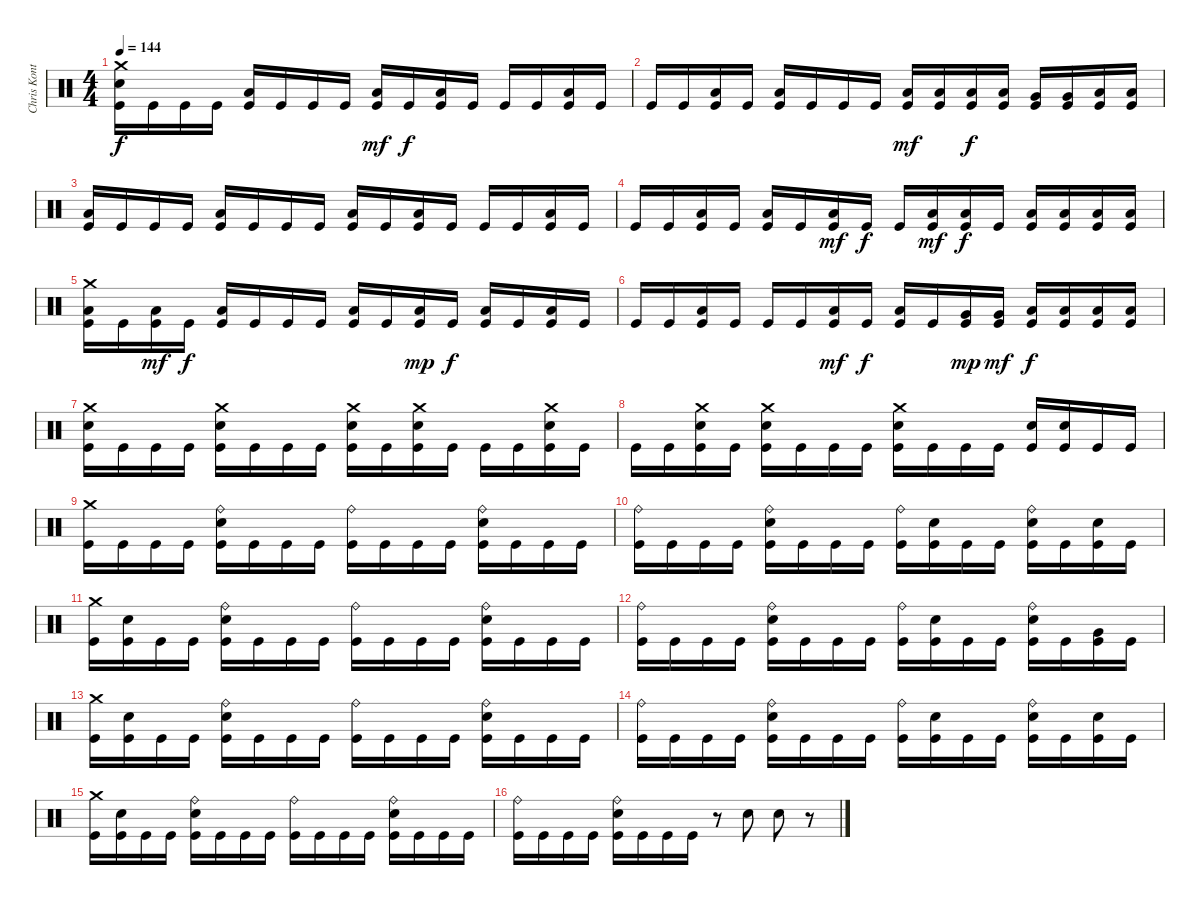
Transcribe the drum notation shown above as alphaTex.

\track ("Chris Kontos" "Chris Kont") {instrument percussion}
\staff {score}
\articulation defaults
\ts (4 4)
\tempo 144
\clef neutral
\ks c
("Crash medium (hit)" "Electric Snare (hit)" "Kick (hit)").16{dy f} "Kick (hit)".16 "Kick (hit)".16 "Kick (hit)".16 ("Low Floor Tom (hit)" "Kick (hit)").16 "Kick (hit)".16 "Kick (hit)".16 "Kick (hit)".16 ("Low Floor Tom (hit)" "Kick (hit)").16{dy mf} "Kick (hit)".16{dy f} ("Low Floor Tom (hit)" "Kick (hit)").16 "Kick (hit)".16 "Kick (hit)".16 "Kick (hit)".16 ("Low Floor Tom (hit)" "Kick (hit)").16 "Kick (hit)".16 |
"Kick (hit)".16 "Kick (hit)".16 ("Low Floor Tom (hit)" "Kick (hit)").16 "Kick (hit)".16 ("Low Floor Tom (hit)" "Kick (hit)").16 "Kick (hit)".16 "Kick (hit)".16 "Kick (hit)".16 ("Low Tom (hit)" "Kick (hit)").16{dy mf} ("Low Tom (hit)" "Kick (hit)").16 ("Low Tom (hit)" "Kick (hit)").16{dy f} ("Low Tom (hit)" "Kick (hit)").16 ("Very Low Tom (hit)" "Kick (hit)").16 ("Very Low Tom (hit)" "Kick (hit)").16 ("Low Floor Tom (hit)" "Kick (hit)").16 ("Low Floor Tom (hit)" "Kick (hit)").16 |
("Low Floor Tom (hit)" "Kick (hit)").16 "Kick (hit)".16 "Kick (hit)".16 "Kick (hit)".16 ("Low Floor Tom (hit)" "Kick (hit)").16 "Kick (hit)".16 "Kick (hit)".16 "Kick (hit)".16 ("Low Floor Tom (hit)" "Kick (hit)").16 "Kick (hit)".16 ("Low Floor Tom (hit)" "Kick (hit)").16 "Kick (hit)".16 "Kick (hit)".16 "Kick (hit)".16 ("Low Floor Tom (hit)" "Kick (hit)").16 "Kick (hit)".16 |
"Kick (hit)".16 "Kick (hit)".16 ("Low Floor Tom (hit)" "Kick (hit)").16 "Kick (hit)".16 ("Low Floor Tom (hit)" "Kick (hit)").16 "Kick (hit)".16 ("Low Floor Tom (hit)" "Kick (hit)").16{dy mf} "Kick (hit)".16{dy f} "Kick (hit)".16 ("Low Floor Tom (hit)" "Kick (hit)").16{dy mf} ("Low Floor Tom (hit)" "Kick (hit)").16{dy f} "Kick (hit)".16 ("Low Floor Tom (hit)" "Kick (hit)").16 ("Low Floor Tom (hit)" "Kick (hit)").16 ("Low Floor Tom (hit)" "Kick (hit)").16 ("Low Floor Tom (hit)" "Kick (hit)").16 |
("Crash medium (hit)" "Low Floor Tom (hit)" "Kick (hit)").16 "Kick (hit)".16 ("Low Floor Tom (hit)" "Kick (hit)").16{dy mf} "Kick (hit)".16{dy f} ("Low Floor Tom (hit)" "Kick (hit)").16 "Kick (hit)".16 "Kick (hit)".16 "Kick (hit)".16 ("Low Floor Tom (hit)" "Kick (hit)").16 "Kick (hit)".16 ("Low Floor Tom (hit)" "Kick (hit)").16{dy mp} "Kick (hit)".16{dy f} ("Low Floor Tom (hit)" "Kick (hit)").16 "Kick (hit)".16 ("Low Floor Tom (hit)" "Kick (hit)").16 "Kick (hit)".16 |
"Kick (hit)".16 "Kick (hit)".16 ("Low Floor Tom (hit)" "Kick (hit)").16 "Kick (hit)".16 "Kick (hit)".16 "Kick (hit)".16 ("Low Floor Tom (hit)" "Kick (hit)").16{dy mf} "Kick (hit)".16{dy f} ("Low Floor Tom (hit)" "Kick (hit)").16 "Kick (hit)".16 ("Very Low Tom (hit)" "Kick (hit)").16{dy mp} ("Very Low Tom (hit)" "Kick (hit)").16{dy mf} ("Low Floor Tom (hit)" "Kick (hit)").16{dy f} ("Low Floor Tom (hit)" "Kick (hit)").16 ("Low Floor Tom (hit)" "Kick (hit)").16 ("Low Floor Tom (hit)" "Kick (hit)").16 |
("Crash medium (hit)" "Electric Snare (hit)" "Kick (hit)").16 "Kick (hit)".16 "Kick (hit)".16 "Kick (hit)".16 ("Crash medium (hit)" "Electric Snare (hit)" "Kick (hit)").16 "Kick (hit)".16 "Kick (hit)".16 "Kick (hit)".16 ("Crash medium (hit)" "Electric Snare (hit)" "Kick (hit)").16 "Kick (hit)".16 ("Crash medium (hit)" "Electric Snare (hit)" "Kick (hit)").16 "Kick (hit)".16 "Kick (hit)".16 "Kick (hit)".16 ("Crash medium (hit)" "Electric Snare (hit)" "Kick (hit)").16 "Kick (hit)".16 |
"Kick (hit)".16 "Kick (hit)".16 ("Crash medium (hit)" "Electric Snare (hit)" "Kick (hit)").16 "Kick (hit)".16 ("Crash medium (hit)" "Electric Snare (hit)" "Kick (hit)").16 "Kick (hit)".16 "Kick (hit)".16 "Kick (hit)".16 ("Crash medium (hit)" "Electric Snare (hit)" "Kick (hit)").16 "Kick (hit)".16 "Kick (hit)".16 "Kick (hit)".16 ("Electric Snare (hit)" "Kick (hit)").16 ("Electric Snare (hit)" "Kick (hit)").16 "Kick (hit)".16 "Kick (hit)".16 |
("Crash medium (hit)" "Kick (hit)").16 "Kick (hit)".16 "Kick (hit)".16 "Kick (hit)".16 ("Ride (bell)" "Electric Snare (hit)" "Kick (hit)").16 "Kick (hit)".16 "Kick (hit)".16 "Kick (hit)".16 ("Ride (bell)" "Kick (hit)").16 "Kick (hit)".16 "Kick (hit)".16 "Kick (hit)".16 ("Ride (bell)" "Electric Snare (hit)" "Kick (hit)").16 "Kick (hit)".16 "Kick (hit)".16 "Kick (hit)".16 |
("Ride (bell)" "Kick (hit)").16 "Kick (hit)".16 "Kick (hit)".16 "Kick (hit)".16 ("Ride (bell)" "Electric Snare (hit)" "Kick (hit)").16 "Kick (hit)".16 "Kick (hit)".16 "Kick (hit)".16 ("Ride (bell)" "Kick (hit)").16 ("Electric Snare (hit)" "Kick (hit)").16 "Kick (hit)".16 "Kick (hit)".16 ("Ride (bell)" "Electric Snare (hit)" "Kick (hit)").16 "Kick (hit)".16 ("Electric Snare (hit)" "Kick (hit)").16 "Kick (hit)".16 |
("Crash medium (hit)" "Kick (hit)").16 ("Electric Snare (hit)" "Kick (hit)").16 "Kick (hit)".16 "Kick (hit)".16 ("Ride (bell)" "Electric Snare (hit)" "Kick (hit)").16 "Kick (hit)".16 "Kick (hit)".16 "Kick (hit)".16 ("Ride (bell)" "Kick (hit)").16 "Kick (hit)".16 "Kick (hit)".16 "Kick (hit)".16 ("Ride (bell)" "Electric Snare (hit)" "Kick (hit)").16 "Kick (hit)".16 "Kick (hit)".16 "Kick (hit)".16 |
("Ride (bell)" "Kick (hit)").16 "Kick (hit)".16 "Kick (hit)".16 "Kick (hit)".16 ("Ride (bell)" "Electric Snare (hit)" "Kick (hit)").16 "Kick (hit)".16 "Kick (hit)".16 "Kick (hit)".16 ("Ride (bell)" "Kick (hit)").16 ("Electric Snare (hit)" "Kick (hit)").16 "Kick (hit)".16 "Kick (hit)".16 ("Ride (bell)" "Electric Snare (hit)" "Kick (hit)").16 "Kick (hit)".16 ("Very Low Tom (hit)" "Kick (hit)").16 "Kick (hit)".16 |
("Crash medium (hit)" "Kick (hit)").16 ("Electric Snare (hit)" "Kick (hit)").16 "Kick (hit)".16 "Kick (hit)".16 ("Ride (bell)" "Electric Snare (hit)" "Kick (hit)").16 "Kick (hit)".16 "Kick (hit)".16 "Kick (hit)".16 ("Ride (bell)" "Kick (hit)").16 "Kick (hit)".16 "Kick (hit)".16 "Kick (hit)".16 ("Ride (bell)" "Electric Snare (hit)" "Kick (hit)").16 "Kick (hit)".16 "Kick (hit)".16 "Kick (hit)".16 |
("Ride (bell)" "Kick (hit)").16 "Kick (hit)".16 "Kick (hit)".16 "Kick (hit)".16 ("Ride (bell)" "Electric Snare (hit)" "Kick (hit)").16 "Kick (hit)".16 "Kick (hit)".16 "Kick (hit)".16 ("Ride (bell)" "Kick (hit)").16 ("Electric Snare (hit)" "Kick (hit)").16 "Kick (hit)".16 "Kick (hit)".16 ("Ride (bell)" "Electric Snare (hit)" "Kick (hit)").16 "Kick (hit)".16 ("Electric Snare (hit)" "Kick (hit)").16 "Kick (hit)".16 |
("Crash medium (hit)" "Kick (hit)").16 ("Electric Snare (hit)" "Kick (hit)").16 "Kick (hit)".16 "Kick (hit)".16 ("Ride (bell)" "Electric Snare (hit)" "Kick (hit)").16 "Kick (hit)".16 "Kick (hit)".16 "Kick (hit)".16 ("Ride (bell)" "Kick (hit)").16 "Kick (hit)".16 "Kick (hit)".16 "Kick (hit)".16 ("Ride (bell)" "Electric Snare (hit)" "Kick (hit)").16 "Kick (hit)".16 "Kick (hit)".16 "Kick (hit)".16 |
("Ride (bell)" "Kick (hit)").16 "Kick (hit)".16 "Kick (hit)".16 "Kick (hit)".16 ("Ride (bell)" "Electric Snare (hit)" "Kick (hit)").16 "Kick (hit)".16 "Kick (hit)".16 "Kick (hit)".16 r.8 "Electric Snare (hit)".8 "Electric Snare (hit)".8 r.8
